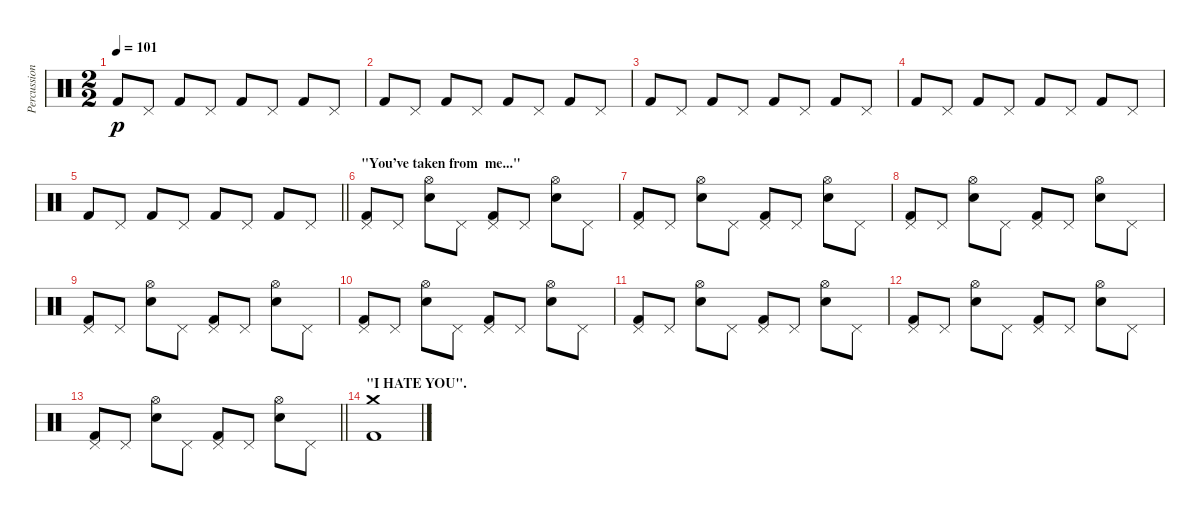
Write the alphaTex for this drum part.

\track ("Percussions" "Percussion") {instrument percussion}
\staff {score}
\articulation defaults
\ts (2 2)
\tempo 101
\clef neutral
\ks c "Kick (hit) 2".8{dy p} "Pedal Hi-Hat (hit)".8 "Kick (hit) 2".8 "Pedal Hi-Hat (hit)".8 "Kick (hit) 2".8 "Pedal Hi-Hat (hit)".8 "Kick (hit) 2".8 "Pedal Hi-Hat (hit)".8
|
"Kick (hit) 2".8 "Pedal Hi-Hat (hit)".8 "Kick (hit) 2".8 "Pedal Hi-Hat (hit)".8 "Kick (hit) 2".8 "Pedal Hi-Hat (hit)".8 "Kick (hit) 2".8 "Pedal Hi-Hat (hit)".8 |
"Kick (hit) 2".8 "Pedal Hi-Hat (hit)".8 "Kick (hit) 2".8 "Pedal Hi-Hat (hit)".8 "Kick (hit) 2".8 "Pedal Hi-Hat (hit)".8 "Kick (hit) 2".8 "Pedal Hi-Hat (hit)".8 |
"Kick (hit) 2".8 "Pedal Hi-Hat (hit)".8 "Kick (hit) 2".8 "Pedal Hi-Hat (hit)".8 "Kick (hit) 2".8 "Pedal Hi-Hat (hit)".8 "Kick (hit) 2".8 "Pedal Hi-Hat (hit)".8 |
\barLineRight lightlight "Kick (hit) 2".8 "Pedal Hi-Hat (hit)".8 "Kick (hit) 2".8 "Pedal Hi-Hat (hit)".8 "Kick (hit) 2".8 "Pedal Hi-Hat (hit)".8 "Kick (hit) 2".8 "Pedal Hi-Hat (hit)".8
|
\section ("" "\"You’ve taken from  me...\"")
("Kick (hit) 2" "Pedal Hi-Hat (hit)").8 "Pedal Hi-Hat (hit)".8 ("Snare (hit) 2" "Hi-Hat (open)").8 "Pedal Hi-Hat (hit)".8 ("Kick (hit) 2" "Pedal Hi-Hat (hit)").8 "Pedal Hi-Hat (hit)".8 ("Snare (hit) 2" "Hi-Hat (open)").8 "Pedal Hi-Hat (hit)".8 |
("Kick (hit) 2" "Pedal Hi-Hat (hit)").8 "Pedal Hi-Hat (hit)".8 ("Snare (hit) 2" "Hi-Hat (open)").8 "Pedal Hi-Hat (hit)".8 ("Kick (hit) 2" "Pedal Hi-Hat (hit)").8 "Pedal Hi-Hat (hit)".8 ("Snare (hit) 2" "Hi-Hat (open)").8 "Pedal Hi-Hat (hit)".8 |
("Kick (hit) 2" "Pedal Hi-Hat (hit)").8 "Pedal Hi-Hat (hit)".8 ("Snare (hit) 2" "Hi-Hat (open)").8 "Pedal Hi-Hat (hit)".8 ("Kick (hit) 2" "Pedal Hi-Hat (hit)").8 "Pedal Hi-Hat (hit)".8 ("Snare (hit) 2" "Hi-Hat (open)").8 "Pedal Hi-Hat (hit)".8 |
("Kick (hit) 2" "Pedal Hi-Hat (hit)").8 "Pedal Hi-Hat (hit)".8 ("Snare (hit) 2" "Hi-Hat (open)").8 "Pedal Hi-Hat (hit)".8 ("Kick (hit) 2" "Pedal Hi-Hat (hit)").8 "Pedal Hi-Hat (hit)".8 ("Snare (hit) 2" "Hi-Hat (open)").8 "Pedal Hi-Hat (hit)".8 |
("Kick (hit) 2" "Pedal Hi-Hat (hit)").8 "Pedal Hi-Hat (hit)".8 ("Snare (hit) 2" "Hi-Hat (open)").8 "Pedal Hi-Hat (hit)".8 ("Kick (hit) 2" "Pedal Hi-Hat (hit)").8 "Pedal Hi-Hat (hit)".8 ("Snare (hit) 2" "Hi-Hat (open)").8 "Pedal Hi-Hat (hit)".8 |
("Kick (hit) 2" "Pedal Hi-Hat (hit)").8 "Pedal Hi-Hat (hit)".8 ("Snare (hit) 2" "Hi-Hat (open)").8 "Pedal Hi-Hat (hit)".8 ("Kick (hit) 2" "Pedal Hi-Hat (hit)").8 "Pedal Hi-Hat (hit)".8 ("Snare (hit) 2" "Hi-Hat (open)").8 "Pedal Hi-Hat (hit)".8 |
("Kick (hit) 2" "Pedal Hi-Hat (hit)").8 "Pedal Hi-Hat (hit)".8 ("Snare (hit) 2" "Hi-Hat (open)").8 "Pedal Hi-Hat (hit)".8 ("Kick (hit) 2" "Pedal Hi-Hat (hit)").8 "Pedal Hi-Hat (hit)".8 ("Snare (hit) 2" "Hi-Hat (open)").8 "Pedal Hi-Hat (hit)".8 |
\barLineRight lightlight
("Kick (hit) 2" "Pedal Hi-Hat (hit)").8 "Pedal Hi-Hat (hit)".8 ("Snare (hit) 2" "Hi-Hat (open)").8 "Pedal Hi-Hat (hit)".8 ("Kick (hit) 2" "Pedal Hi-Hat (hit)").8 "Pedal Hi-Hat (hit)".8 ("Snare (hit) 2" "Hi-Hat (open)").8 "Pedal Hi-Hat (hit)".8 |
\section ("" "\"I HATE YOU\".")
("Kick (hit) 2" "Crash medium (hit)").1
